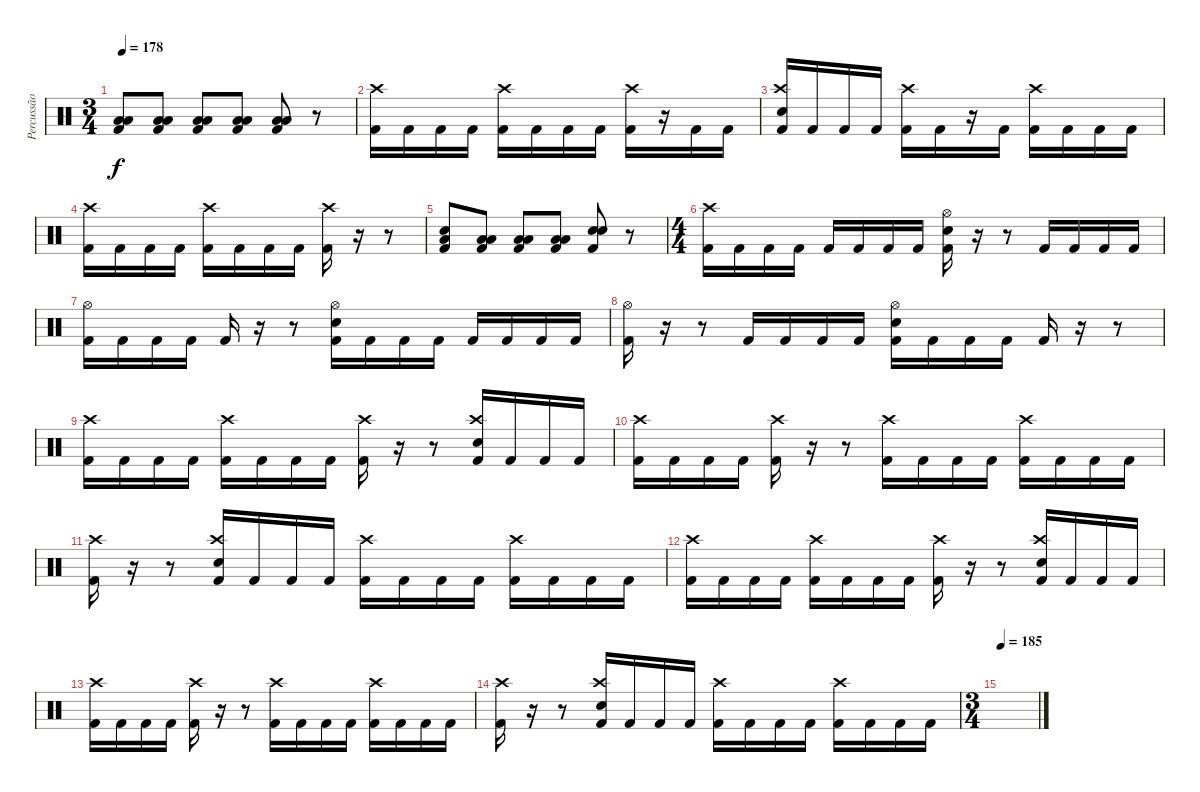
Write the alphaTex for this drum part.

\track ("Percussão" "Percussão") {instrument percussion}
\staff {score}
\articulation defaults
\ts (3 4)
\tempo 178
\clef neutral
\ks c
("Low Floor Tom (hit)" "Low Tom (hit)" "Kick (hit) 2").8{dy f} ("Low Floor Tom (hit)" "Low Tom (hit)" "Kick (hit) 2").8 ("Low Floor Tom (hit)" "Low Tom (hit)" "Kick (hit) 2").8 ("Low Floor Tom (hit)" "Low Tom (hit)" "Kick (hit) 2").8 ("Low Floor Tom (hit)" "Low Tom (hit)" "Kick (hit) 2").8 r.8 |
("Crash high (hit)" "Kick (hit) 2").16 "Kick (hit) 2".16 "Kick (hit) 2".16 "Kick (hit) 2".16 ("Crash high (hit)" "Kick (hit) 2").16 "Kick (hit) 2".16 "Kick (hit) 2".16 "Kick (hit) 2".16 ("Crash high (hit)" "Kick (hit) 2").16 r.16 "Kick (hit) 2".16 "Kick (hit) 2".16 |
("Crash high (hit)" "Snare (hit) 2" "Kick (hit) 2").16 "Kick (hit) 2".16 "Kick (hit) 2".16 "Kick (hit) 2".16 ("Crash high (hit)" "Kick (hit) 2").16 "Kick (hit) 2".16 r.16 "Kick (hit) 2".16 ("Crash high (hit)" "Kick (hit) 2").16 "Kick (hit) 2".16 "Kick (hit) 2".16 "Kick (hit) 2".16 |
("Crash high (hit)" "Kick (hit) 2").16 "Kick (hit) 2".16 "Kick (hit) 2".16 "Kick (hit) 2".16 ("Crash high (hit)" "Kick (hit) 2").16 "Kick (hit) 2".16 "Kick (hit) 2".16 "Kick (hit) 2".16 ("Crash high (hit)" "Kick (hit) 2").16 r.16 r.8 |
("Low Floor Tom (hit)" "Snare (hit) 2" "Kick (hit) 2").8 ("Low Floor Tom (hit)" "Low Tom (hit)" "Kick (hit) 2").8 ("Low Floor Tom (hit)" "Low Tom (hit)" "Kick (hit) 2").8 ("Low Floor Tom (hit)" "Low Tom (hit)" "Kick (hit) 2").8 ("Snare (hit) 2" "Snare (hit) 2" "Kick (hit) 2").8 r.8 |
\ts (4 4)
("Crash high (hit)" "Kick (hit) 2").16 "Kick (hit) 2".16 "Kick (hit) 2".16 "Kick (hit) 2".16 "Kick (hit) 2".16 "Kick (hit) 2".16 "Kick (hit) 2".16 "Kick (hit) 2".16 ("Hi-Hat (open)" "Snare (hit) 2" "Kick (hit) 2").16 r.16 r.8 "Kick (hit) 2".16 "Kick (hit) 2".16 "Kick (hit) 2".16 "Kick (hit) 2".16 |
("Hi-Hat (open)" "Kick (hit) 2").16 "Kick (hit) 2".16 "Kick (hit) 2".16 "Kick (hit) 2".16 "Kick (hit) 2".16 r.16 r.8 ("Hi-Hat (open)" "Snare (hit) 2" "Kick (hit) 2").16 "Kick (hit) 2".16 "Kick (hit) 2".16 "Kick (hit) 2".16 "Kick (hit) 2".16 "Kick (hit) 2".16 "Kick (hit) 2".16 "Kick (hit) 2".16 |
("Hi-Hat (open)" "Kick (hit) 2").16 r.16 r.8 "Kick (hit) 2".16 "Kick (hit) 2".16 "Kick (hit) 2".16 "Kick (hit) 2".16 ("Hi-Hat (open)" "Snare (hit) 2" "Kick (hit) 2").16 "Kick (hit) 2".16 "Kick (hit) 2".16 "Kick (hit) 2".16 "Kick (hit) 2".16 r.16 r.8 |
("Crash high (hit)" "Kick (hit) 2").16 "Kick (hit) 2".16 "Kick (hit) 2".16 "Kick (hit) 2".16 ("Crash high (hit)" "Kick (hit) 2").16 "Kick (hit) 2".16 "Kick (hit) 2".16 "Kick (hit) 2".16 ("Crash high (hit)" "Kick (hit) 2").16 r.16 r.8 ("Crash high (hit)" "Snare (hit) 2" "Kick (hit) 2").16 "Kick (hit) 2".16 "Kick (hit) 2".16 "Kick (hit) 2".16 |
("Crash high (hit)" "Kick (hit) 2").16 "Kick (hit) 2".16 "Kick (hit) 2".16 "Kick (hit) 2".16 ("Crash high (hit)" "Kick (hit) 2").16 r.16 r.8 ("Crash high (hit)" "Kick (hit) 2").16 "Kick (hit) 2".16 "Kick (hit) 2".16 "Kick (hit) 2".16 ("Crash high (hit)" "Kick (hit) 2").16 "Kick (hit) 2".16 "Kick (hit) 2".16 "Kick (hit) 2".16 |
("Crash high (hit)" "Kick (hit) 2").16 r.16 r.8 ("Crash high (hit)" "Snare (hit) 2" "Kick (hit) 2").16 "Kick (hit) 2".16 "Kick (hit) 2".16 "Kick (hit) 2".16 ("Crash high (hit)" "Kick (hit) 2").16 "Kick (hit) 2".16 "Kick (hit) 2".16 "Kick (hit) 2".16 ("Crash high (hit)" "Kick (hit) 2").16 "Kick (hit) 2".16 "Kick (hit) 2".16 "Kick (hit) 2".16 |
("Crash high (hit)" "Kick (hit) 2").16 "Kick (hit) 2".16 "Kick (hit) 2".16 "Kick (hit) 2".16 ("Crash high (hit)" "Kick (hit) 2").16 "Kick (hit) 2".16 "Kick (hit) 2".16 "Kick (hit) 2".16 ("Crash high (hit)" "Kick (hit) 2").16 r.16 r.8 ("Crash high (hit)" "Snare (hit) 2" "Kick (hit) 2").16 "Kick (hit) 2".16 "Kick (hit) 2".16 "Kick (hit) 2".16 |
("Crash high (hit)" "Kick (hit) 2").16 "Kick (hit) 2".16 "Kick (hit) 2".16 "Kick (hit) 2".16 ("Crash high (hit)" "Kick (hit) 2").16 r.16 r.8 ("Crash high (hit)" "Kick (hit) 2").16 "Kick (hit) 2".16 "Kick (hit) 2".16 "Kick (hit) 2".16 ("Crash high (hit)" "Kick (hit) 2").16 "Kick (hit) 2".16 "Kick (hit) 2".16 "Kick (hit) 2".16 |
("Crash high (hit)" "Kick (hit) 2").16 r.16 r.8 ("Crash high (hit)" "Snare (hit) 2" "Kick (hit) 2").16 "Kick (hit) 2".16 "Kick (hit) 2".16 "Kick (hit) 2".16 ("Crash high (hit)" "Kick (hit) 2").16 "Kick (hit) 2".16 "Kick (hit) 2".16 "Kick (hit) 2".16 ("Crash high (hit)" "Kick (hit) 2").16 "Kick (hit) 2".16 "Kick (hit) 2".16 "Kick (hit) 2".16 |
\ts (3 4)
\tempo 185
